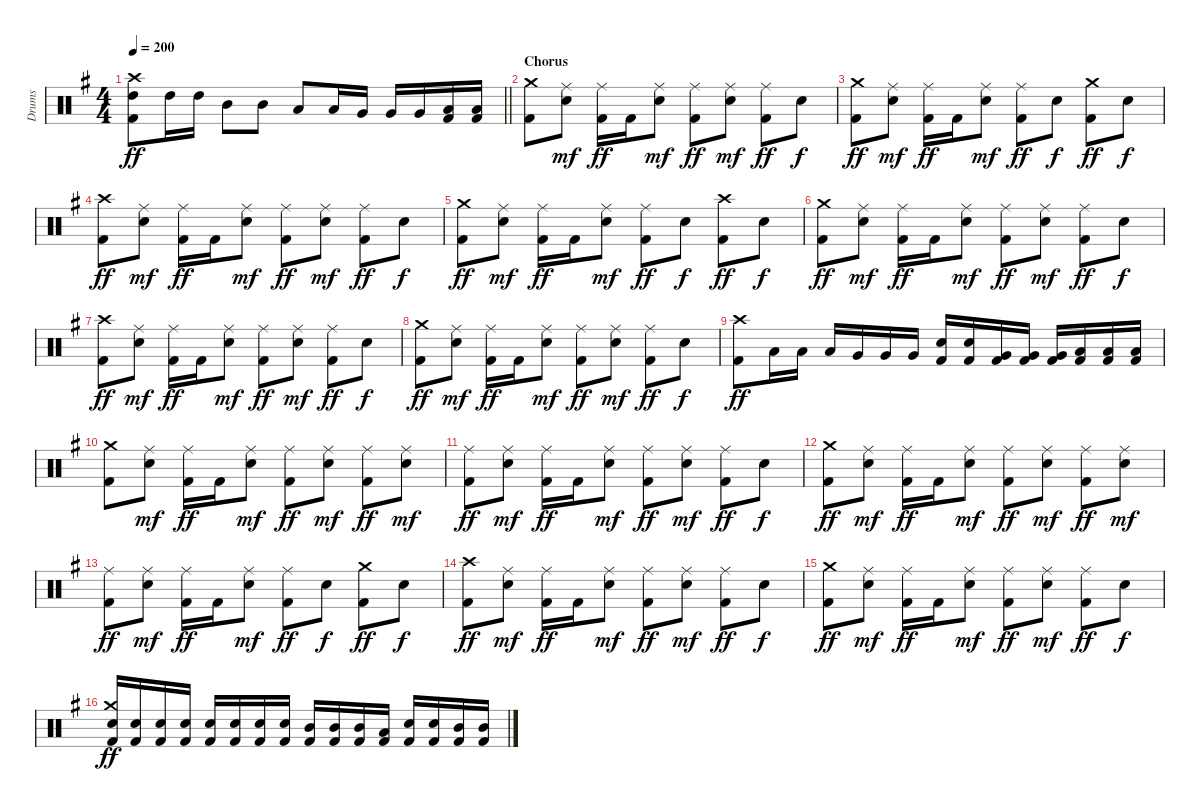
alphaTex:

\track ("Drums" "Drums") {instrument percussion}
\staff {score}
\articulation defaults
\ts (4 4)
\tempo 200
\clef neutral
\barLineRight lightlight
\ks g
("Crash high (hit)" "High Tom (hit)" "Kick (hit) 2").8{dy ff} "High Tom (hit)".16 "High Tom (hit)".16 "Mid Tom (hit)".8 "Mid Tom (hit)".8 "Low Tom (hit)".8 "Low Tom (hit)".16 "Very Low Tom (hit)".16 "Very Low Tom (hit)".16 "Very Low Tom (hit)".16 ("Low Floor Tom (hit)" "Kick (hit) 2").16 ("Low Floor Tom (hit)" "Kick (hit) 2").16 |
\section ("" "Chorus")
("Crash medium (hit)" "Kick (hit) 2").8 ("Ride (middle)" "Snare (hit) 2").8{dy mf} ("Ride (middle)" "Kick (hit) 2").16{dy ff} "Kick (hit) 2".16 ("Ride (middle)" "Snare (hit) 2").8{dy mf} ("Ride (middle)" "Kick (hit) 2").8{dy ff} ("Ride (middle)" "Snare (hit) 2").8{dy mf} ("Ride (middle)" "Kick (hit) 2").8{dy ff} "Snare (hit) 2".8{dy f} |
("Crash medium (hit)" "Kick (hit) 2").8{dy ff} ("Ride (middle)" "Snare (hit) 2").8{dy mf} ("Ride (middle)" "Kick (hit) 2").16{dy ff} "Kick (hit) 2".16 ("Ride (middle)" "Snare (hit) 2").8{dy mf} ("Ride (middle)" "Kick (hit) 2").8{dy ff} "Snare (hit) 2".8{dy f} ("Crash medium (hit)" "Kick (hit) 2").8{dy ff} "Snare (hit) 2".8{dy f} |
("Crash high (hit)" "Kick (hit) 2").8{dy ff} ("Ride (middle)" "Snare (hit) 2").8{dy mf} ("Ride (middle)" "Kick (hit) 2").16{dy ff} "Kick (hit) 2".16 ("Ride (middle)" "Snare (hit) 2").8{dy mf} ("Ride (middle)" "Kick (hit) 2").8{dy ff} ("Ride (middle)" "Snare (hit) 2").8{dy mf} ("Ride (middle)" "Kick (hit) 2").8{dy ff} "Snare (hit) 2".8{dy f} |
("Crash medium (hit)" "Kick (hit) 2").8{dy ff} ("Ride (middle)" "Snare (hit) 2").8{dy mf} ("Ride (middle)" "Kick (hit) 2").16{dy ff} "Kick (hit) 2".16 ("Ride (middle)" "Snare (hit) 2").8{dy mf} ("Ride (middle)" "Kick (hit) 2").8{dy ff} "Snare (hit) 2".8{dy f} ("Crash high (hit)" "Kick (hit) 2").8{dy ff} "Snare (hit) 2".8{dy f} |
("Crash medium (hit)" "Kick (hit) 2").8{dy ff} ("Ride (middle)" "Snare (hit) 2").8{dy mf} ("Ride (middle)" "Kick (hit) 2").16{dy ff} "Kick (hit) 2".16 ("Ride (middle)" "Snare (hit) 2").8{dy mf} ("Ride (middle)" "Kick (hit) 2").8{dy ff} ("Ride (middle)" "Snare (hit) 2").8{dy mf} ("Ride (middle)" "Kick (hit) 2").8{dy ff} "Snare (hit) 2".8{dy f} |
("Crash high (hit)" "Kick (hit) 2").8{dy ff} ("Ride (middle)" "Snare (hit) 2").8{dy mf} ("Ride (middle)" "Kick (hit) 2").16{dy ff} "Kick (hit) 2".16 ("Ride (middle)" "Snare (hit) 2").8{dy mf} ("Ride (middle)" "Kick (hit) 2").8{dy ff} ("Ride (middle)" "Snare (hit) 2").8{dy mf} ("Ride (middle)" "Kick (hit) 2").8{dy ff} "Snare (hit) 2".8{dy f} |
("Crash medium (hit)" "Kick (hit) 2").8{dy ff} ("Ride (middle)" "Snare (hit) 2").8{dy mf} ("Ride (middle)" "Kick (hit) 2").16{dy ff} "Kick (hit) 2".16 ("Ride (middle)" "Snare (hit) 2").8{dy mf} ("Ride (middle)" "Kick (hit) 2").8{dy ff} ("Ride (middle)" "Snare (hit) 2").8{dy mf} ("Ride (middle)" "Kick (hit) 2").8{dy ff} "Snare (hit) 2".8{dy f} |
("Crash high (hit)" "Kick (hit) 2").8{dy ff} "Low Tom (hit)".16 "Low Tom (hit)".16 "Low Tom (hit)".16 "Very Low Tom (hit)".16 "Very Low Tom (hit)".16 "Very Low Tom (hit)".16 ("Snare (hit) 2" "Kick (hit) 2").16 ("Snare (hit) 2" "Kick (hit) 2").16 ("Very Low Tom (hit)" "Kick (hit) 2").16 ("Very Low Tom (hit)" "Kick (hit) 2").16 ("Very Low Tom (hit)" "Kick (hit) 2").16 ("Low Floor Tom (hit)" "Kick (hit) 2").16 ("Low Floor Tom (hit)" "Kick (hit) 2").16 ("Low Floor Tom (hit)" "Kick (hit) 2").16 |
("Crash medium (hit)" "Kick (hit) 2").8 ("Ride (middle)" "Snare (hit) 2").8{dy mf} ("Ride (middle)" "Kick (hit) 2").16{dy ff} "Kick (hit) 2".16 ("Ride (middle)" "Snare (hit) 2").8{dy mf} ("Ride (middle)" "Kick (hit) 2").8{dy ff} ("Ride (middle)" "Snare (hit) 2").8{dy mf} ("Ride (middle)" "Kick (hit) 2").8{dy ff} ("Ride (middle)" "Snare (hit) 2").8{dy mf} |
("Ride (middle)" "Kick (hit) 2").8{dy ff} ("Ride (middle)" "Snare (hit) 2").8{dy mf} ("Ride (middle)" "Kick (hit) 2").16{dy ff} "Kick (hit) 2".16 ("Ride (middle)" "Snare (hit) 2").8{dy mf} ("Ride (middle)" "Kick (hit) 2").8{dy ff} ("Ride (middle)" "Snare (hit) 2").8{dy mf} ("Ride (middle)" "Kick (hit) 2").8{dy ff} "Snare (hit) 2".8{dy f} |
("Crash medium (hit)" "Kick (hit) 2").8{dy ff} ("Ride (middle)" "Snare (hit) 2").8{dy mf} ("Ride (middle)" "Kick (hit) 2").16{dy ff} "Kick (hit) 2".16 ("Ride (middle)" "Snare (hit) 2").8{dy mf} ("Ride (middle)" "Kick (hit) 2").8{dy ff} ("Ride (middle)" "Snare (hit) 2").8{dy mf} ("Ride (middle)" "Kick (hit) 2").8{dy ff} ("Ride (middle)" "Snare (hit) 2").8{dy mf} |
("Ride (middle)" "Kick (hit) 2").8{dy ff} ("Ride (middle)" "Snare (hit) 2").8{dy mf} ("Ride (middle)" "Kick (hit) 2").16{dy ff} "Kick (hit) 2".16 ("Ride (middle)" "Snare (hit) 2").8{dy mf} ("Ride (middle)" "Kick (hit) 2").8{dy ff} "Snare (hit) 2".8{dy f} ("Crash medium (hit)" "Kick (hit) 2").8{dy ff} "Snare (hit) 2".8{dy f} |
("Crash high (hit)" "Kick (hit) 2").8{dy ff} ("Ride (middle)" "Snare (hit) 2").8{dy mf} ("Ride (middle)" "Kick (hit) 2").16{dy ff} "Kick (hit) 2".16 ("Ride (middle)" "Snare (hit) 2").8{dy mf} ("Ride (middle)" "Kick (hit) 2").8{dy ff} ("Ride (middle)" "Snare (hit) 2").8{dy mf} ("Ride (middle)" "Kick (hit) 2").8{dy ff} "Snare (hit) 2".8{dy f} |
("Crash medium (hit)" "Kick (hit) 2").8{dy ff} ("Ride (middle)" "Snare (hit) 2").8{dy mf} ("Ride (middle)" "Kick (hit) 2").16{dy ff} "Kick (hit) 2".16 ("Ride (middle)" "Snare (hit) 2").8{dy mf} ("Ride (middle)" "Kick (hit) 2").8{dy ff} ("Ride (middle)" "Snare (hit) 2").8{dy mf} ("Ride (middle)" "Kick (hit) 2").8{dy ff} "Snare (hit) 2".8{dy f} |
("Crash medium (hit)" "Snare (hit) 2" "Kick (hit) 2").16{dy ff} ("Snare (hit) 2" "Kick (hit) 2").16 ("Snare (hit) 2" "Kick (hit) 2").16 ("Snare (hit) 2" "Kick (hit) 2").16 ("Snare (hit) 2" "Kick (hit) 2").16 ("Snare (hit) 2" "Kick (hit) 2").16 ("Snare (hit) 2" "Kick (hit) 2").16 ("Snare (hit) 2" "Kick (hit) 2").16 ("Mid Tom (hit)" "Kick (hit) 2").16 ("Mid Tom (hit)" "Kick (hit) 2").16 ("Mid Tom (hit)" "Kick (hit) 2").16 ("Low Tom (hit)" "Kick (hit) 2").16 ("Snare (hit) 2" "Kick (hit) 2").16 ("Snare (hit) 2" "Kick (hit) 2").16 ("Mid Tom (hit)" "Kick (hit) 2").16 ("Mid Tom (hit)" "Kick (hit) 2").16
